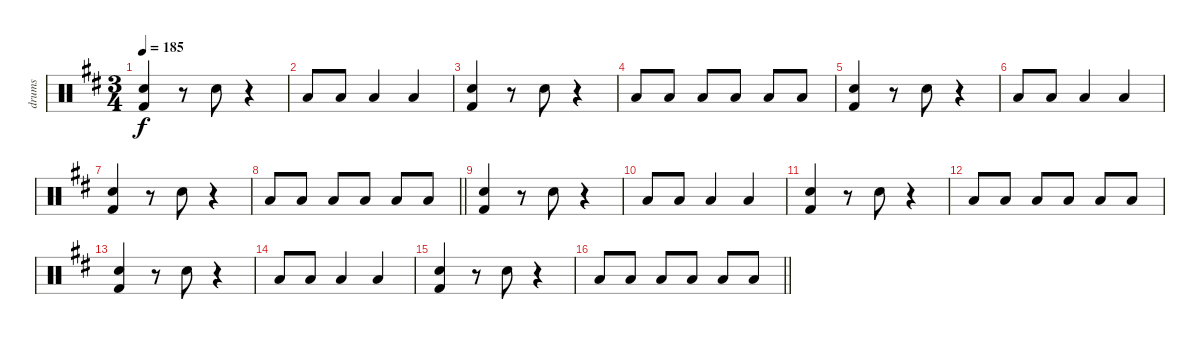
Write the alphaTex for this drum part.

\track ("drums" "drums") {instrument percussion}
\staff {score}
\articulation defaults
\ts (3 4)
\tempo 185
\clef neutral
\ks d
("Kick (hit) 2" "Electric Snare (hit)").4{dy f} r.8 "Electric Snare (hit)".8 r.4 |
"Low Tom (hit)".8 "Low Tom (hit)".8 "Low Tom (hit)".4 "Low Tom (hit)".4 |
("Kick (hit) 2" "Electric Snare (hit)").4 r.8 "Electric Snare (hit)".8 r.4 |
"Low Tom (hit)".8 "Low Tom (hit)".8 "Low Tom (hit)".8 "Low Tom (hit)".8 "Low Tom (hit)".8 "Low Tom (hit)".8 |
("Kick (hit) 2" "Electric Snare (hit)").4 r.8 "Electric Snare (hit)".8 r.4 |
"Low Tom (hit)".8 "Low Tom (hit)".8 "Low Tom (hit)".4 "Low Tom (hit)".4 |
("Kick (hit) 2" "Electric Snare (hit)").4 r.8 "Electric Snare (hit)".8 r.4 |
\barLineRight lightlight "Low Tom (hit)".8 "Low Tom (hit)".8 "Low Tom (hit)".8 "Low Tom (hit)".8 "Low Tom (hit)".8 "Low Tom (hit)".8
|
("Kick (hit) 2" "Electric Snare (hit)").4 r.8 "Electric Snare (hit)".8 r.4 |
"Low Tom (hit)".8 "Low Tom (hit)".8 "Low Tom (hit)".4 "Low Tom (hit)".4 |
("Kick (hit) 2" "Electric Snare (hit)").4 r.8 "Electric Snare (hit)".8 r.4 |
"Low Tom (hit)".8 "Low Tom (hit)".8 "Low Tom (hit)".8 "Low Tom (hit)".8 "Low Tom (hit)".8 "Low Tom (hit)".8 |
("Kick (hit) 2" "Electric Snare (hit)").4 r.8 "Electric Snare (hit)".8 r.4 |
"Low Tom (hit)".8 "Low Tom (hit)".8 "Low Tom (hit)".4 "Low Tom (hit)".4 |
("Kick (hit) 2" "Electric Snare (hit)").4 r.8 "Electric Snare (hit)".8 r.4 |
\barLineRight lightlight "Low Tom (hit)".8 "Low Tom (hit)".8 "Low Tom (hit)".8 "Low Tom (hit)".8 "Low Tom (hit)".8 "Low Tom (hit)".8
